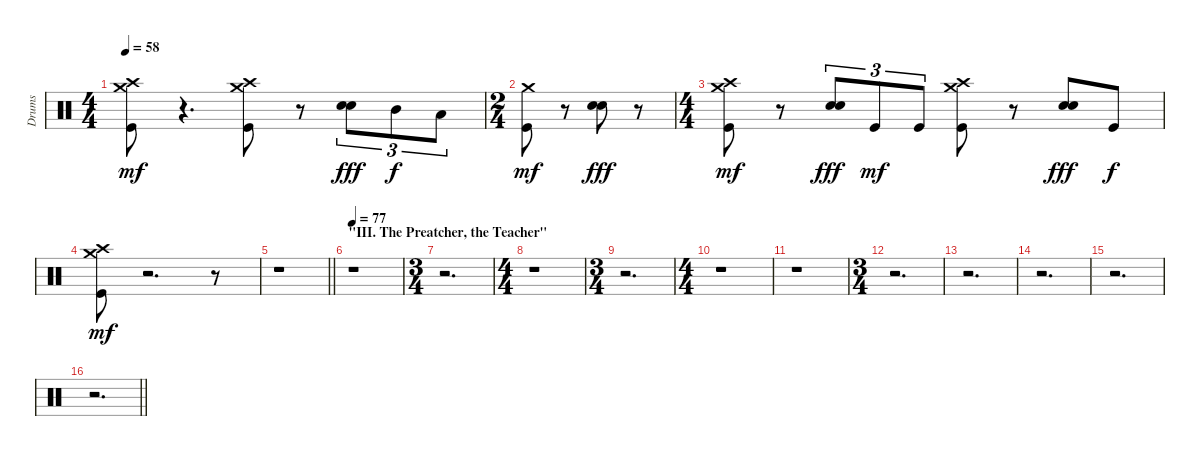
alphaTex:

\track ("Drums" "Drums") {instrument percussion}
\staff {score}
\articulation defaults
\ts (4 4)
\tempo 58
\clef neutral
\ks c
("Kick (hit)" "Crash high (hit)" "Crash medium (hit)").8{dy mf} r.4{d} ("Kick (hit)" "Crash high (hit)" "Crash medium (hit)").8 r.8 ("Snare (hit) 2" "Electric Snare (hit)").8{tu (3 2) dy fff} "Mid Tom (hit)".8{tu (3 2) dy f} "Low Tom (hit)".8{tu (3 2)} |
\ts (2 4)
("Kick (hit)" "Crash medium (hit)").8{dy mf} r.8 ("Snare (hit) 2" "Electric Snare (hit)").8{dy fff} r.8 |
\ts (4 4)
("Kick (hit)" "Crash high (hit)" "Crash medium (hit)").8{dy mf} r.8 ("Snare (hit) 2" "Electric Snare (hit)").8{tu (3 2) dy fff} "Kick (hit)".8{tu (3 2) dy mf} "Kick (hit)".8{tu (3 2)} ("Kick (hit)" "Crash high (hit)" "Crash medium (hit)").8 r.8 ("Snare (hit) 2" "Electric Snare (hit)").8{dy fff} "Kick (hit)".8{dy f} |
("Kick (hit)" "Crash high (hit)" "Crash medium (hit)").8{dy mf} r.2{d} r.8 |
\barLineRight lightlight
r.1 |
\section ("" "\"III. The Preatcher, the Teacher\"")
\tempo 77
r.1 |
\ts (3 4)
r.2{d} |
\ts (4 4)
r.1 |
\ts (3 4)
r.2{d} |
\ts (4 4)
r.1 |
r.1 |
\ts (3 4)
r.2{d} |
r.2{d} |
r.2{d} |
r.2{d} |
\barLineRight lightlight
r.2{d}
